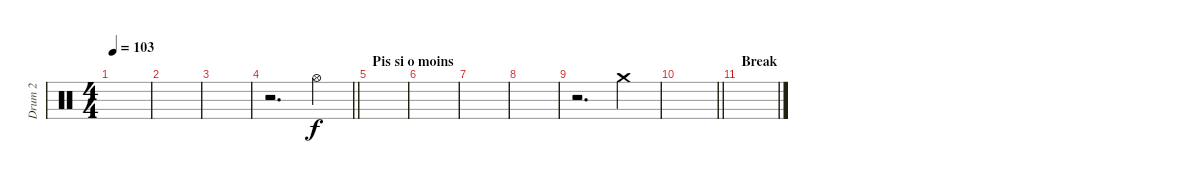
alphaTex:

\track ("Drum 2" "Drum 2") {instrument percussion}
\staff {score}
\articulation defaults
\ts (4 4)
\tempo 103
\clef neutral
\ks c
|
|
|
\barLineRight lightlight
r.2{d} "Hi-Hat (open)".4 |
\section ("" "Pis si o moins")
|
|
|
|
r.2{d} "Crash medium (hit)".4 |
\barLineRight lightlight
|
\section ("" "Break")
